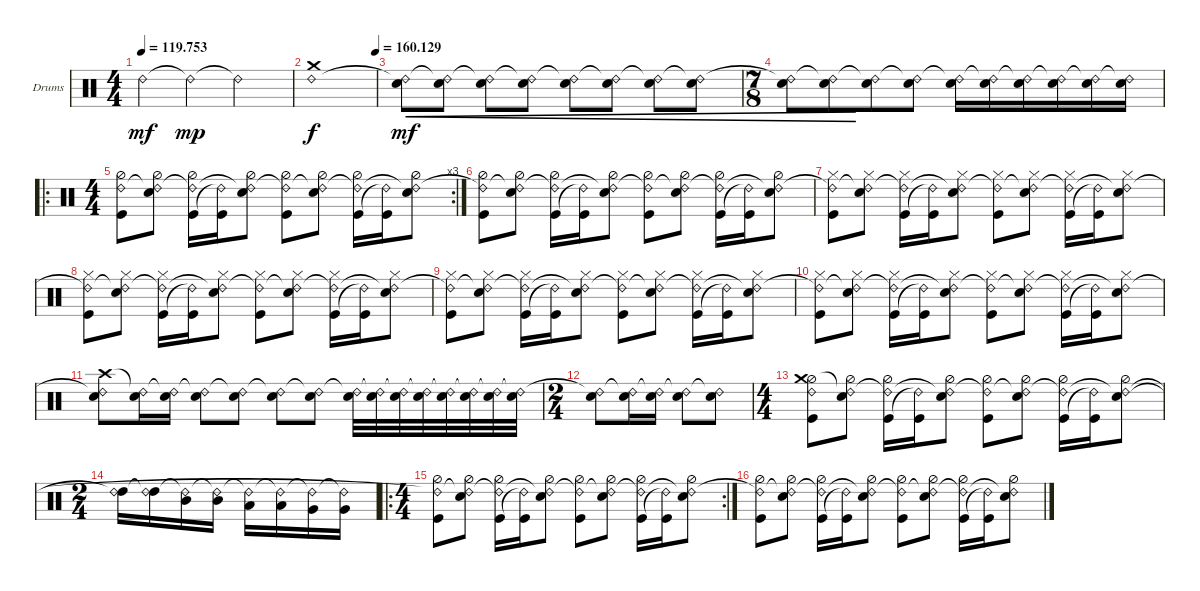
\defaultSystemsLayout 4
\bracketExtendMode groupsimilarinstruments
\firstSystemTrackNameOrientation horizontal
\otherSystemsTrackNameOrientation horizontal
\track ("Drumkit" "Drums") {instrument percussion}
\staff {score}
\articulation defaults
\ts (4 4)
\tempo
119.753
\accidentals auto
\clef neutral
\ottava regular
\simile none
\ks c "Ride (bell) 2".4{dy mf} "Ride (bell) 2"{t}.4{dy mp} "Ride (bell) 2"{t}.2
|
\tempo (160.129 1)
("Crash medium (hit)" "Ride (bell) 2").1{dy f} |
("Snare (hit) 2" "Ride (bell) 2"{t}).8{cre dy mf} ("Snare (hit) 2" "Ride (bell) 2"{t}).8{cre} ("Snare (hit) 2" "Ride (bell) 2"{t}).8{cre} ("Snare (hit) 2" "Ride (bell) 2"{t}).8{cre} ("Snare (hit) 2" "Ride (bell) 2"{t}).8{cre} ("Snare (hit) 2" "Ride (bell) 2"{t}).8{cre} ("Snare (hit) 2" "Ride (bell) 2"{t}).8{cre} ("Snare (hit) 2" "Ride (bell) 2"{t}).8{cre} |
\ts (7 8)
("Snare (hit) 2" "Ride (bell) 2"{t}).8{cre} ("Snare (hit) 2" "Ride (bell) 2"{t}).8{cre} ("Snare (hit) 2" "Ride (bell) 2"{t}).8 ("Snare (hit) 2" "Ride (bell) 2"{t}).8 ("Snare (hit) 2" "Ride (bell) 2"{t}).16 ("Snare (hit) 2" "Ride (bell) 2"{t}).16 ("Snare (hit) 2" "Ride (bell) 2"{t}).16 ("Snare (hit) 2" "Ride (bell) 2"{t}).16 ("Snare (hit) 2" "Ride (bell) 2"{t}).16 ("Snare (hit) 2" "Ride (bell) 2"{t}).16 |
\ro
\rc 3
\ts (4 4)
("Kick (hit)" "Hi-Hat (half)" "Ride (bell) 2").8 ("Hi-Hat (half)" "Snare (hit) 2" "Ride (bell) 2"{t}).8 ("Hi-Hat (half)" "Kick (hit)" "Ride (bell) 2"{t}).16 ("Kick (hit)" "Ride (bell) 2"{t}).16 ("Hi-Hat (half)" "Snare (hit) 2" "Ride (bell) 2"{t}).8 ("Kick (hit)" "Hi-Hat (half)" "Ride (bell) 2"{t}).8 ("Hi-Hat (half)" "Snare (hit) 2" "Ride (bell) 2"{t}).8 ("Hi-Hat (half)" "Kick (hit)" "Ride (bell) 2"{t}).16 ("Kick (hit)" "Ride (bell) 2"{t}).16 ("Hi-Hat (half)" "Snare (hit) 2" "Ride (bell) 2"{t}).8 |
("Kick (hit)" "Hi-Hat (half)" "Ride (bell) 2"{t}).8 ("Hi-Hat (half)" "Snare (hit) 2" "Ride (bell) 2"{t}).8 ("Hi-Hat (half)" "Kick (hit)" "Ride (bell) 2"{t}).16 ("Kick (hit)" "Ride (bell) 2"{t}).16 ("Hi-Hat (half)" "Snare (hit) 2" "Ride (bell) 2"{t}).8 ("Kick (hit)" "Hi-Hat (half)" "Ride (bell) 2"{t}).8 ("Hi-Hat (half)" "Snare (hit) 2" "Ride (bell) 2"{t}).8 ("Hi-Hat (half)" "Kick (hit)" "Ride (bell) 2"{t}).16 ("Kick (hit)" "Ride (bell) 2"{t}).16 ("Hi-Hat (half)" "Snare (hit) 2" "Ride (bell) 2"{t}).8 |
("Kick (hit)" "Hi-Hat (closed)" "Ride (bell) 2"{t}).8 ("Hi-Hat (closed)" "Snare (hit) 2" "Ride (bell) 2"{t}).8 ("Hi-Hat (closed)" "Kick (hit)" "Ride (bell) 2"{t}).16 ("Kick (hit)" "Ride (bell) 2"{t}).16 ("Hi-Hat (closed)" "Snare (hit) 2" "Ride (bell) 2"{t}).8 ("Kick (hit)" "Hi-Hat (closed)" "Ride (bell) 2"{t}).8 ("Hi-Hat (closed)" "Snare (hit) 2" "Ride (bell) 2"{t}).8 ("Hi-Hat (closed)" "Kick (hit)" "Ride (bell) 2"{t}).16 ("Kick (hit)" "Ride (bell) 2"{t}).16 ("Hi-Hat (closed)" "Snare (hit) 2" "Ride (bell) 2"{t}).8 |
("Kick (hit)" "Hi-Hat (closed)" "Ride (bell) 2"{t}).8 ("Hi-Hat (closed)" "Snare (hit) 2" "Ride (bell) 2"{t}).8 ("Hi-Hat (closed)" "Kick (hit)" "Ride (bell) 2"{t}).16 ("Kick (hit)" "Ride (bell) 2"{t}).16 ("Hi-Hat (closed)" "Snare (hit) 2" "Ride (bell) 2"{t}).8 ("Kick (hit)" "Hi-Hat (closed)" "Ride (bell) 2"{t}).8 ("Hi-Hat (closed)" "Snare (hit) 2" "Ride (bell) 2"{t}).8 ("Hi-Hat (closed)" "Kick (hit)" "Ride (bell) 2"{t}).16 ("Kick (hit)" "Ride (bell) 2"{t}).16 ("Hi-Hat (closed)" "Snare (hit) 2" "Ride (bell) 2"{t}).8 |
("Kick (hit)" "Hi-Hat (closed)" "Ride (bell) 2"{t}).8 ("Hi-Hat (closed)" "Snare (hit) 2" "Ride (bell) 2"{t}).8 ("Hi-Hat (closed)" "Kick (hit)" "Ride (bell) 2"{t}).16 ("Kick (hit)" "Ride (bell) 2"{t}).16 ("Hi-Hat (closed)" "Snare (hit) 2" "Ride (bell) 2"{t}).8 ("Kick (hit)" "Hi-Hat (closed)" "Ride (bell) 2"{t}).8 ("Hi-Hat (closed)" "Snare (hit) 2" "Ride (bell) 2"{t}).8 ("Hi-Hat (closed)" "Kick (hit)" "Ride (bell) 2"{t}).16 ("Kick (hit)" "Ride (bell) 2"{t}).16 ("Hi-Hat (closed)" "Snare (hit) 2" "Ride (bell) 2"{t}).8 |
("Kick (hit)" "Hi-Hat (closed)" "Ride (bell) 2"{t}).8 ("Hi-Hat (closed)" "Snare (hit) 2" "Ride (bell) 2"{t}).8 ("Hi-Hat (closed)" "Kick (hit)" "Ride (bell) 2"{t}).16 ("Kick (hit)" "Ride (bell) 2"{t}).16 ("Hi-Hat (closed)" "Snare (hit) 2" "Ride (bell) 2"{t}).8 ("Kick (hit)" "Hi-Hat (closed)" "Ride (bell) 2"{t}).8 ("Hi-Hat (closed)" "Snare (hit) 2" "Ride (bell) 2"{t}).8 ("Hi-Hat (closed)" "Kick (hit)" "Ride (bell) 2"{t}).16 ("Kick (hit)" "Ride (bell) 2"{t}).16 ("Hi-Hat (closed)" "Snare (hit) 2" "Ride (bell) 2"{t}).8 |
("Snare (hit) 2" "Crash high (hit)" "Ride (bell) 2"{t}).8 ("Snare (hit) 2" "Ride (bell) 2"{t}).16 ("Snare (hit) 2" "Ride (bell) 2"{t}).16 ("Snare (hit) 2" "Ride (bell) 2"{t}).8 ("Snare (hit) 2" "Ride (bell) 2"{t}).8 ("Snare (hit) 2" "Ride (bell) 2"{t}).8 ("Snare (hit) 2" "Ride (bell) 2"{t}).8 ("Snare (hit) 2" "Ride (bell) 2"{t}).32 ("Snare (hit) 2" "Ride (bell) 2"{t}).32 ("Snare (hit) 2" "Ride (bell) 2"{t}).32 ("Snare (hit) 2" "Ride (bell) 2"{t}).32 ("Snare (hit) 2" "Ride (bell) 2"{t}).32 ("Snare (hit) 2" "Ride (bell) 2"{t}).32 ("Snare (hit) 2" "Ride (bell) 2"{t}).32 ("Snare (hit) 2" "Ride (bell) 2"{t}).32 |
\ts (2 4)
("Snare (hit) 2" "Ride (bell) 2"{t}).8 ("Snare (hit) 2" "Ride (bell) 2"{t}).16 ("Snare (hit) 2" "Ride (bell) 2"{t}).16 ("Snare (hit) 2" "Ride (bell) 2"{t}).8 ("Snare (hit) 2" "Ride (bell) 2"{t}).8 |
\ts (4 4)
("Kick (hit)" "Hi-Hat (half)" "Crash medium (hit)" "Ride (bell) 2").8 ("Hi-Hat (half)" "Snare (hit) 2" "Ride (bell) 2"{t}).8 ("Hi-Hat (half)" "Kick (hit)" "Ride (bell) 2"{t}).16 ("Kick (hit)" "Ride (bell) 2"{t}).16 ("Hi-Hat (half)" "Snare (hit) 2" "Ride (bell) 2"{t}).8 ("Kick (hit)" "Hi-Hat (half)" "Ride (bell) 2"{t}).8 ("Hi-Hat (half)" "Snare (hit) 2" "Ride (bell) 2"{t}).8 ("Hi-Hat (half)" "Kick (hit)" "Ride (bell) 2"{t}).16 ("Kick (hit)" "Ride (bell) 2"{t}).16 ("Hi-Hat (half)" "Snare (hit) 2" "Ride (bell) 2"{t}).8 |
\ts (2 4)
("High Tom (hit)" "Ride (bell) 2"{t}).16 ("High Tom (hit)" "Ride (bell) 2"{t}).16 ("Mid Tom (hit)" "Ride (bell) 2"{t}).16 ("Mid Tom (hit)" "Ride (bell) 2"{t}).16 ("Low Tom (hit)" "Ride (bell) 2"{t}).16 ("Low Tom (hit)" "Ride (bell) 2"{t}).16 ("Very Low Tom (hit)" "Ride (bell) 2"{t}).16 ("Very Low Tom (hit)" "Ride (bell) 2"{t}).16 |
\ro
\rc 2
\ts (4 4)
("Kick (hit)" "Hi-Hat (half)" "Ride (bell) 2"{t}).8 ("Hi-Hat (half)" "Snare (hit) 2" "Ride (bell) 2"{t}).8 ("Hi-Hat (half)" "Kick (hit)" "Ride (bell) 2"{t}).16 ("Kick (hit)" "Ride (bell) 2"{t}).16 ("Hi-Hat (half)" "Snare (hit) 2" "Ride (bell) 2"{t}).8 ("Kick (hit)" "Hi-Hat (half)" "Ride (bell) 2"{t}).8 ("Hi-Hat (half)" "Snare (hit) 2" "Ride (bell) 2"{t}).8 ("Hi-Hat (half)" "Kick (hit)" "Ride (bell) 2"{t}).16 ("Kick (hit)" "Ride (bell) 2"{t}).16 ("Hi-Hat (half)" "Snare (hit) 2" "Ride (bell) 2"{t}).8 |
("Kick (hit)" "Hi-Hat (half)" "Ride (bell) 2"{t}).8 ("Hi-Hat (half)" "Snare (hit) 2" "Ride (bell) 2"{t}).8 ("Hi-Hat (half)" "Kick (hit)" "Ride (bell) 2"{t}).16 ("Kick (hit)" "Ride (bell) 2"{t}).16 ("Hi-Hat (half)" "Snare (hit) 2" "Ride (bell) 2"{t}).8 ("Kick (hit)" "Hi-Hat (half)" "Ride (bell) 2"{t}).8 ("Hi-Hat (half)" "Snare (hit) 2" "Ride (bell) 2"{t}).8 ("Hi-Hat (half)" "Kick (hit)" "Ride (bell) 2"{t}).16 ("Kick (hit)" "Ride (bell) 2"{t}).16 ("Hi-Hat (half)" "Snare (hit) 2" "Ride (bell) 2"{t}).8
